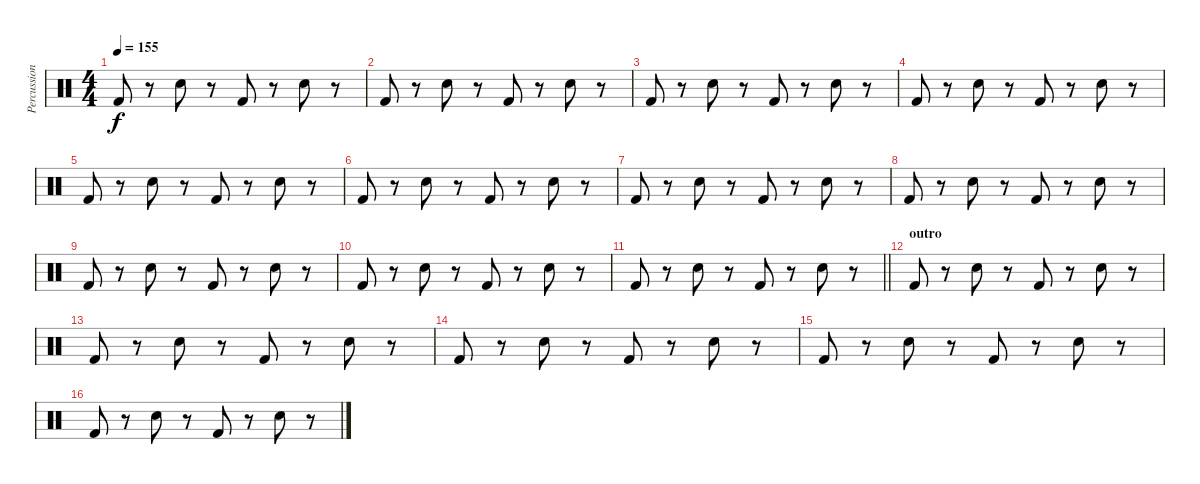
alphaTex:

\track ("Percussions" "Percussion") {instrument percussion}
\staff {score}
\articulation defaults
\ts (4 4)
\tempo 155
\clef neutral
\ks c "Kick (hit) 2".8{dy f}
r.8 "Snare (hit) 2".8 r.8 "Kick (hit) 2".8 r.8 "Snare (hit) 2".8 r.8 |
"Kick (hit) 2".8 r.8 "Snare (hit) 2".8 r.8 "Kick (hit) 2".8 r.8 "Snare (hit) 2".8 r.8 |
"Kick (hit) 2".8 r.8 "Snare (hit) 2".8 r.8 "Kick (hit) 2".8 r.8 "Snare (hit) 2".8 r.8 |
"Kick (hit) 2".8 r.8 "Snare (hit) 2".8 r.8 "Kick (hit) 2".8 r.8 "Snare (hit) 2".8 r.8 |
"Kick (hit) 2".8 r.8 "Snare (hit) 2".8 r.8 "Kick (hit) 2".8 r.8 "Snare (hit) 2".8 r.8 |
"Kick (hit) 2".8 r.8 "Snare (hit) 2".8 r.8 "Kick (hit) 2".8 r.8 "Snare (hit) 2".8 r.8 |
"Kick (hit) 2".8 r.8 "Snare (hit) 2".8 r.8 "Kick (hit) 2".8 r.8 "Snare (hit) 2".8 r.8 |
"Kick (hit) 2".8 r.8 "Snare (hit) 2".8 r.8 "Kick (hit) 2".8 r.8 "Snare (hit) 2".8 r.8 |
"Kick (hit) 2".8 r.8 "Snare (hit) 2".8 r.8 "Kick (hit) 2".8 r.8 "Snare (hit) 2".8 r.8 |
"Kick (hit) 2".8 r.8 "Snare (hit) 2".8 r.8 "Kick (hit) 2".8 r.8 "Snare (hit) 2".8 r.8 |
\barLineRight lightlight "Kick (hit) 2".8
r.8 "Snare (hit) 2".8 r.8 "Kick (hit) 2".8 r.8 "Snare (hit) 2".8 r.8 |
\section ("" "outro")
"Kick (hit) 2".8 r.8 "Snare (hit) 2".8 r.8 "Kick (hit) 2".8 r.8 "Snare (hit) 2".8 r.8 |
"Kick (hit) 2".8 r.8 "Snare (hit) 2".8 r.8 "Kick (hit) 2".8 r.8 "Snare (hit) 2".8 r.8 |
"Kick (hit) 2".8 r.8 "Snare (hit) 2".8 r.8 "Kick (hit) 2".8 r.8 "Snare (hit) 2".8 r.8 |
"Kick (hit) 2".8 r.8 "Snare (hit) 2".8 r.8 "Kick (hit) 2".8 r.8 "Snare (hit) 2".8 r.8 |
"Kick (hit) 2".8 r.8 "Snare (hit) 2".8 r.8 "Kick (hit) 2".8 r.8 "Snare (hit) 2".8 r.8
